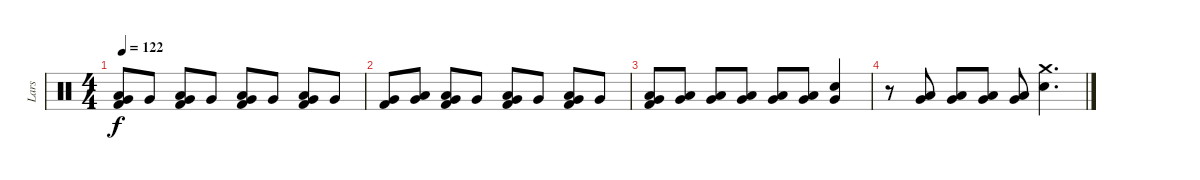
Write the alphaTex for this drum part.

\track ("Lars" "Lars") {instrument percussion}
\staff {score}
\articulation defaults
\ts (4 4)
\tempo 122
\clef neutral
\ks c
("Very Low Tom (hit)" "Low Tom (hit)" "Kick (hit) 2").8{dy f} "Very Low Tom (hit)".8 ("Very Low Tom (hit)" "Low Tom (hit)" "Kick (hit) 2").8 "Very Low Tom (hit)".8 ("Very Low Tom (hit)" "Low Tom (hit)" "Kick (hit) 2").8 "Very Low Tom (hit)".8 ("Very Low Tom (hit)" "Low Tom (hit)" "Kick (hit) 2").8 "Very Low Tom (hit)".8 |
("Very Low Tom (hit)" "Kick (hit) 2").8 ("Very Low Tom (hit)" "Low Tom (hit)").8 ("Very Low Tom (hit)" "Low Tom (hit)" "Kick (hit) 2").8 "Very Low Tom (hit)".8 ("Very Low Tom (hit)" "Low Tom (hit)" "Kick (hit) 2").8 "Very Low Tom (hit)".8 ("Very Low Tom (hit)" "Low Tom (hit)" "Kick (hit) 2").8 "Very Low Tom (hit)".8 |
("Low Tom (hit)" "Very Low Tom (hit)" "Kick (hit) 2").8 ("Low Tom (hit)" "Very Low Tom (hit)").8 ("Low Tom (hit)" "Very Low Tom (hit)").8 ("Low Tom (hit)" "Very Low Tom (hit)").8 ("Low Tom (hit)" "Very Low Tom (hit)").8 ("Low Tom (hit)" "Very Low Tom (hit)").8 ("Snare (hit) 2" "Very Low Tom (hit)").4 |
r.8 ("Low Tom (hit)" "Very Low Tom (hit)").8 ("Low Tom (hit)" "Very Low Tom (hit)").8 ("Low Tom (hit)" "Very Low Tom (hit)").8 ("Low Tom (hit)" "Very Low Tom (hit)").8 ("Crash medium (hit)" "Snare (hit) 2").4{d}
